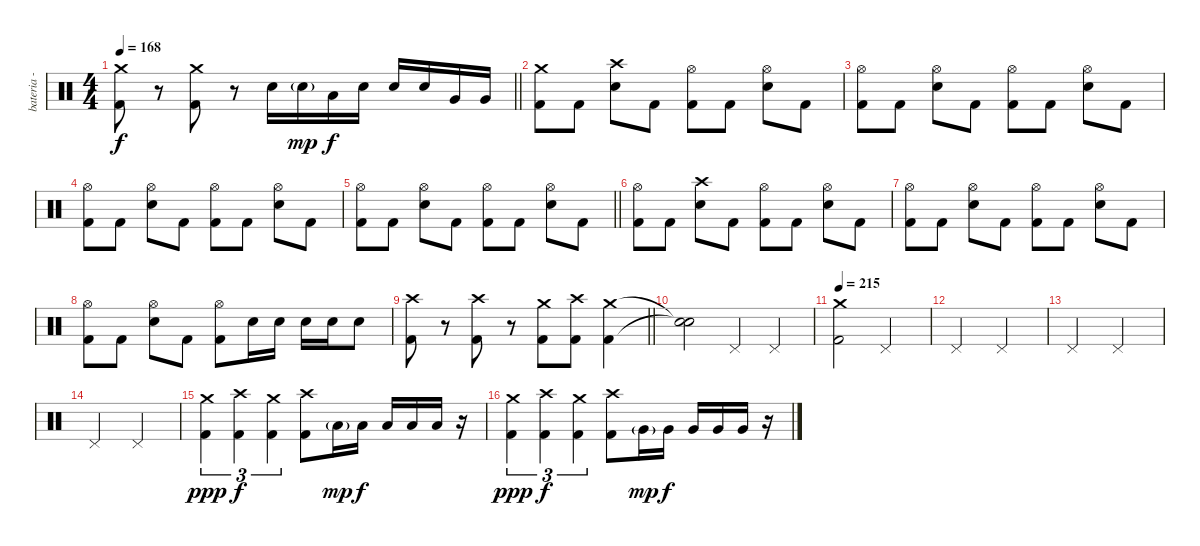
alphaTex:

\track ("bateria - drums" "bateria - ") {instrument percussion}
\staff {score}
\articulation defaults
\ts (4 4)
\tempo 168
\clef neutral
\barLineRight lightlight
\ks c
("Crash medium (hit)" "Kick (hit) 2").8{dy f} r.8 ("Crash medium (hit)" "Kick (hit) 2").8 r.8 "Electric Snare (hit)".16 "Electric Snare (hit)"{g}.16{dy mp} "Low Tom (hit)".16{dy f} "Electric Snare (hit)".16 "Electric Snare (hit)".16 "Electric Snare (hit)".16 "Very Low Tom (hit)".16 "Very Low Tom (hit)".16 |
("Crash medium (hit)" "Kick (hit) 2").8 "Kick (hit) 2".8 ("Crash high (hit)" "Electric Snare (hit)").8 "Kick (hit) 2".8 ("Hi-Hat (open)" "Kick (hit) 2").8 "Kick (hit) 2".8 ("Hi-Hat (open)" "Electric Snare (hit)").8 "Kick (hit) 2".8 |
("Hi-Hat (open)" "Kick (hit) 2").8 "Kick (hit) 2".8 ("Hi-Hat (open)" "Electric Snare (hit)").8 "Kick (hit) 2".8 ("Hi-Hat (open)" "Kick (hit) 2").8 "Kick (hit) 2".8 ("Hi-Hat (open)" "Electric Snare (hit)").8 "Kick (hit) 2".8 |
("Hi-Hat (open)" "Kick (hit) 2").8 "Kick (hit) 2".8 ("Hi-Hat (open)" "Electric Snare (hit)").8 "Kick (hit) 2".8 ("Hi-Hat (open)" "Kick (hit) 2").8 "Kick (hit) 2".8 ("Hi-Hat (open)" "Electric Snare (hit)").8 "Kick (hit) 2".8 |
\barLineRight lightlight
("Hi-Hat (open)" "Kick (hit) 2").8 "Kick (hit) 2".8 ("Hi-Hat (open)" "Electric Snare (hit)").8 "Kick (hit) 2".8 ("Hi-Hat (open)" "Kick (hit) 2").8 "Kick (hit) 2".8 ("Hi-Hat (open)" "Electric Snare (hit)").8 "Kick (hit) 2".8 |
("Hi-Hat (open)" "Kick (hit) 2").8 "Kick (hit) 2".8 ("Crash high (hit)" "Electric Snare (hit)").8 "Kick (hit) 2".8 ("Hi-Hat (open)" "Kick (hit) 2").8 "Kick (hit) 2".8 ("Hi-Hat (open)" "Electric Snare (hit)").8 "Kick (hit) 2".8 |
("Hi-Hat (open)" "Kick (hit) 2").8 "Kick (hit) 2".8 ("Hi-Hat (open)" "Electric Snare (hit)").8 "Kick (hit) 2".8 ("Hi-Hat (open)" "Kick (hit) 2").8 "Kick (hit) 2".8 ("Hi-Hat (open)" "Electric Snare (hit)").8 "Kick (hit) 2".8 |
("Hi-Hat (open)" "Kick (hit) 2").8 "Kick (hit) 2".8 ("Hi-Hat (open)" "Electric Snare (hit)").8 "Kick (hit) 2".8 ("Hi-Hat (open)" "Kick (hit) 2").8 "Electric Snare (hit)".16 "Electric Snare (hit)".16 "Electric Snare (hit)".16 "Electric Snare (hit)".16 "Electric Snare (hit)".8 |
\barLineRight lightlight
("Crash high (hit)" "Kick (hit) 2").8 r.8 ("Crash high (hit)" "Kick (hit) 2").8 r.8 ("Crash medium (hit)" "Kick (hit) 2").8 ("Crash high (hit)" "Kick (hit) 2").8 ("Crash medium (hit)" "Kick (hit) 2").4 |
("Snare (hit)"{t} "Snare (hit)"{t}).2 "Pedal Hi-Hat (hit)".4 "Pedal Hi-Hat (hit)".4 |
\tempo 215
("Crash medium (hit)" "Kick (hit) 2").2 "Pedal Hi-Hat (hit)".2 |
"Pedal Hi-Hat (hit)".2 "Pedal Hi-Hat (hit)".2 |
"Pedal Hi-Hat (hit)".2 "Pedal Hi-Hat (hit)".2 |
"Pedal Hi-Hat (hit)".2 "Pedal Hi-Hat (hit)".2 |
("Crash medium (hit)" "Kick (hit) 2").4{tu (3 2) dy ppp} ("Crash high (hit)" "Kick (hit) 2").4{tu (3 2) dy f} ("Crash medium (hit)" "Kick (hit) 2").4{tu (3 2)} ("Crash high (hit)" "Kick (hit) 2").8 "Low Tom (hit)"{g}.16{dy mp} "Low Tom (hit)".16{dy f} "Low Tom (hit)".16 "Low Tom (hit)".16 "Low Tom (hit)".16 r.16 |
("Crash medium (hit)" "Kick (hit) 2").4{tu (3 2) dy ppp} ("Crash high (hit)" "Kick (hit) 2").4{tu (3 2) dy f} ("Crash medium (hit)" "Kick (hit) 2").4{tu (3 2)} ("Crash high (hit)" "Kick (hit) 2").8 "Very Low Tom (hit)"{g}.16{dy mp} "Very Low Tom (hit)".16{dy f} "Very Low Tom (hit)".16 "Very Low Tom (hit)".16 "Very Low Tom (hit)".16 r.16
